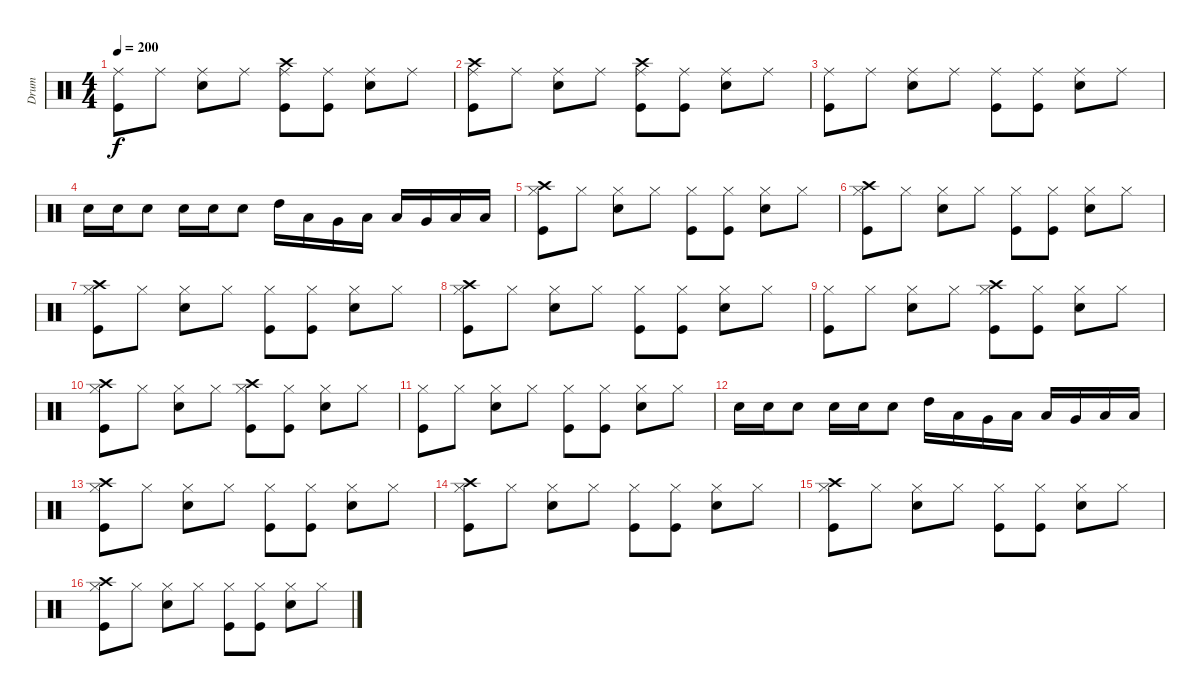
\track ("Drum" "Drum") {instrument percussion}
\staff {score}
\articulation defaults
\ts (4 4)
\tempo 200
\clef neutral
\ks c
("Ride (middle)" "Kick (hit)").8{dy f} "Ride (middle)".8 ("Ride (middle)" "Electric Snare (hit)").8 "Ride (middle)".8 ("Crash high (hit)" "Ride (middle)" "Kick (hit)").8 ("Ride (middle)" "Kick (hit)").8 ("Ride (middle)" "Electric Snare (hit)").8 "Ride (middle)".8 |
("Crash high (hit)" "Ride (middle)" "Kick (hit)").8 "Ride (middle)".8 ("Ride (middle)" "Electric Snare (hit)").8 "Ride (middle)".8 ("Crash high (hit)" "Ride (middle)" "Kick (hit)").8 ("Ride (middle)" "Kick (hit)").8 ("Ride (middle)" "Electric Snare (hit)").8 "Ride (middle)".8 |
("Ride (middle)" "Kick (hit)").8 "Ride (middle)".8 ("Ride (middle)" "Electric Snare (hit)").8 "Ride (middle)".8 ("Ride (middle)" "Kick (hit)").8 ("Ride (middle)" "Kick (hit)").8 ("Ride (middle)" "Electric Snare (hit)").8 "Ride (middle)".8 |
"Electric Snare (hit)".16 "Electric Snare (hit)".16 "Electric Snare (hit)".8 "Electric Snare (hit)".16 "Electric Snare (hit)".16 "Electric Snare (hit)".8 "High Tom (hit)".16 "Low Tom (hit)".16 "Very Low Tom (hit)".16 "Low Floor Tom (hit)".16 "Low Tom (hit)".16 "Very Low Tom (hit)".16 "Low Floor Tom (hit)".16 "Low Floor Tom (hit)".16 |
("Crash high (hit)" "Hi-Hat (closed)" "Kick (hit)").8 "Hi-Hat (closed)".8 ("Hi-Hat (closed)" "Electric Snare (hit)").8 "Hi-Hat (closed)".8 ("Hi-Hat (closed)" "Kick (hit)").8 ("Hi-Hat (closed)" "Kick (hit)").8 ("Hi-Hat (closed)" "Electric Snare (hit)").8 "Hi-Hat (closed)".8 |
("Crash high (hit)" "Hi-Hat (closed)" "Kick (hit)").8 "Hi-Hat (closed)".8 ("Hi-Hat (closed)" "Electric Snare (hit)").8 "Hi-Hat (closed)".8 ("Hi-Hat (closed)" "Kick (hit)").8 ("Hi-Hat (closed)" "Kick (hit)").8 ("Hi-Hat (closed)" "Electric Snare (hit)").8 "Hi-Hat (closed)".8 |
("Crash high (hit)" "Hi-Hat (closed)" "Kick (hit)").8 "Hi-Hat (closed)".8 ("Hi-Hat (closed)" "Electric Snare (hit)").8 "Hi-Hat (closed)".8 ("Hi-Hat (closed)" "Kick (hit)").8 ("Hi-Hat (closed)" "Kick (hit)").8 ("Hi-Hat (closed)" "Electric Snare (hit)").8 "Hi-Hat (closed)".8 |
("Crash high (hit)" "Hi-Hat (closed)" "Kick (hit)").8 "Hi-Hat (closed)".8 ("Hi-Hat (closed)" "Electric Snare (hit)").8 "Hi-Hat (closed)".8 ("Hi-Hat (closed)" "Kick (hit)").8 ("Hi-Hat (closed)" "Kick (hit)").8 ("Hi-Hat (closed)" "Electric Snare (hit)").8 "Hi-Hat (closed)".8 |
("Hi-Hat (closed)" "Kick (hit)").8 "Hi-Hat (closed)".8 ("Hi-Hat (closed)" "Electric Snare (hit)").8 "Hi-Hat (closed)".8 ("Crash high (hit)" "Hi-Hat (closed)" "Kick (hit)").8 ("Hi-Hat (closed)" "Kick (hit)").8 ("Hi-Hat (closed)" "Electric Snare (hit)").8 "Hi-Hat (closed)".8 |
("Crash high (hit)" "Hi-Hat (closed)" "Kick (hit)").8 "Hi-Hat (closed)".8 ("Hi-Hat (closed)" "Electric Snare (hit)").8 "Hi-Hat (closed)".8 ("Crash high (hit)" "Hi-Hat (closed)" "Kick (hit)").8 ("Hi-Hat (closed)" "Kick (hit)").8 ("Hi-Hat (closed)" "Electric Snare (hit)").8 "Hi-Hat (closed)".8 |
("Hi-Hat (closed)" "Kick (hit)").8 "Hi-Hat (closed)".8 ("Hi-Hat (closed)" "Electric Snare (hit)").8 "Hi-Hat (closed)".8 ("Hi-Hat (closed)" "Kick (hit)").8 ("Hi-Hat (closed)" "Kick (hit)").8 ("Hi-Hat (closed)" "Electric Snare (hit)").8 "Hi-Hat (closed)".8 |
"Electric Snare (hit)".16 "Electric Snare (hit)".16 "Electric Snare (hit)".8 "Electric Snare (hit)".16 "Electric Snare (hit)".16 "Electric Snare (hit)".8 "High Tom (hit)".16 "Low Tom (hit)".16 "Very Low Tom (hit)".16 "Low Floor Tom (hit)".16 "Low Tom (hit)".16 "Very Low Tom (hit)".16 "Low Floor Tom (hit)".16 "Low Floor Tom (hit)".16 |
("Crash high (hit)" "Hi-Hat (closed)" "Kick (hit)").8 "Hi-Hat (closed)".8 ("Hi-Hat (closed)" "Electric Snare (hit)").8 "Hi-Hat (closed)".8 ("Hi-Hat (closed)" "Kick (hit)").8 ("Hi-Hat (closed)" "Kick (hit)").8 ("Hi-Hat (closed)" "Electric Snare (hit)").8 "Hi-Hat (closed)".8 |
("Crash high (hit)" "Hi-Hat (closed)" "Kick (hit)").8 "Hi-Hat (closed)".8 ("Hi-Hat (closed)" "Electric Snare (hit)").8 "Hi-Hat (closed)".8 ("Hi-Hat (closed)" "Kick (hit)").8 ("Hi-Hat (closed)" "Kick (hit)").8 ("Hi-Hat (closed)" "Electric Snare (hit)").8 "Hi-Hat (closed)".8 |
("Crash high (hit)" "Hi-Hat (closed)" "Kick (hit)").8 "Hi-Hat (closed)".8 ("Hi-Hat (closed)" "Electric Snare (hit)").8 "Hi-Hat (closed)".8 ("Hi-Hat (closed)" "Kick (hit)").8 ("Hi-Hat (closed)" "Kick (hit)").8 ("Hi-Hat (closed)" "Electric Snare (hit)").8 "Hi-Hat (closed)".8 |
("Crash high (hit)" "Hi-Hat (closed)" "Kick (hit)").8 "Hi-Hat (closed)".8 ("Hi-Hat (closed)" "Electric Snare (hit)").8 "Hi-Hat (closed)".8 ("Hi-Hat (closed)" "Kick (hit)").8 ("Hi-Hat (closed)" "Kick (hit)").8 ("Hi-Hat (closed)" "Electric Snare (hit)").8 "Hi-Hat (closed)".8
